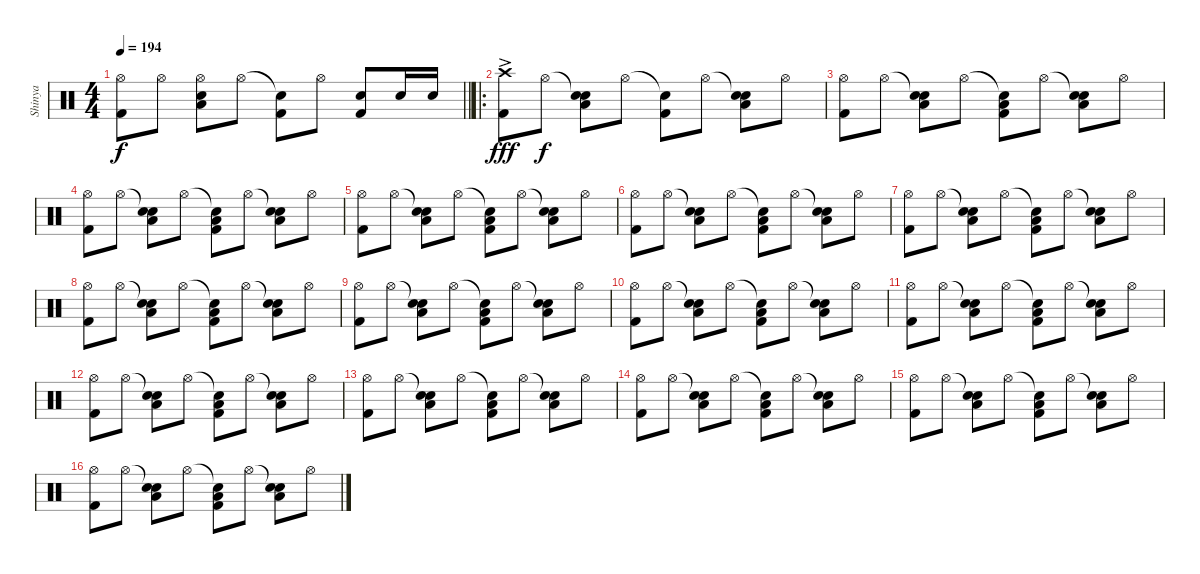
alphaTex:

\track ("Shinya" "Shinya") {instrument percussion}
\staff {score}
\articulation defaults
\ts (4 4)
\tempo 194
\clef neutral
\barLineRight lightlight
\ks c
("Hi-Hat (open)" "Kick (hit) 2").8{dy f} "Hi-Hat (open)".8 ("Hi-Hat (open)" "Snare (hit) 2" "Low Floor Tom (hit)").8 "Hi-Hat (open)".8 ("Snare (hit)"{t} "Kick (hit) 2").8 "Hi-Hat (open)".8 ("Snare (hit) 2" "Kick (hit) 2").8 "Snare (hit) 2".16 "Snare (hit) 2".16 |
\ro
("Crash high (hit)"{ac} "Kick (hit) 2").8{dy fff} "Hi-Hat (open)".8{dy f} ("Snare (hit)"{t} "Snare (hit) 2" "Low Floor Tom (hit)").8 "Hi-Hat (open)".8 ("Snare (hit)"{t} "Kick (hit) 2").8 "Hi-Hat (open)".8 ("Snare (hit)"{t} "Snare (hit) 2" "Low Floor Tom (hit)").8 "Hi-Hat (open)".8 |
("Hi-Hat (open)" "Kick (hit) 2").8 "Hi-Hat (open)".8 ("Snare (hit)"{t} "Snare (hit) 2" "Low Floor Tom (hit)").8 "Hi-Hat (open)".8 ("Snare (hit)"{t} "Kick (hit) 2" "Low Floor Tom (hit)").8 "Hi-Hat (open)".8 ("Snare (hit)"{t} "Snare (hit) 2" "Low Floor Tom (hit)").8 "Hi-Hat (open)".8 |
("Hi-Hat (open)" "Kick (hit) 2").8 "Hi-Hat (open)".8 ("Snare (hit)"{t} "Snare (hit) 2" "Low Floor Tom (hit)").8 "Hi-Hat (open)".8 ("Snare (hit)"{t} "Kick (hit) 2" "Low Floor Tom (hit)").8 "Hi-Hat (open)".8 ("Snare (hit)"{t} "Snare (hit) 2" "Low Floor Tom (hit)").8 "Hi-Hat (open)".8 |
("Hi-Hat (open)" "Kick (hit) 2").8 "Hi-Hat (open)".8 ("Snare (hit)"{t} "Snare (hit) 2" "Low Floor Tom (hit)").8 "Hi-Hat (open)".8 ("Snare (hit)"{t} "Kick (hit) 2" "Low Floor Tom (hit)").8 "Hi-Hat (open)".8 ("Snare (hit)"{t} "Snare (hit) 2" "Low Floor Tom (hit)").8 "Hi-Hat (open)".8 |
("Hi-Hat (open)" "Kick (hit) 2").8 "Hi-Hat (open)".8 ("Snare (hit)"{t} "Snare (hit) 2" "Low Floor Tom (hit)").8 "Hi-Hat (open)".8 ("Snare (hit)"{t} "Kick (hit) 2" "Low Floor Tom (hit)").8 "Hi-Hat (open)".8 ("Snare (hit)"{t} "Snare (hit) 2" "Low Floor Tom (hit)").8 "Hi-Hat (open)".8 |
("Hi-Hat (open)" "Kick (hit) 2").8 "Hi-Hat (open)".8 ("Snare (hit)"{t} "Snare (hit) 2" "Low Floor Tom (hit)").8 "Hi-Hat (open)".8 ("Snare (hit)"{t} "Kick (hit) 2" "Low Floor Tom (hit)").8 "Hi-Hat (open)".8 ("Snare (hit)"{t} "Snare (hit) 2" "Low Floor Tom (hit)").8 "Hi-Hat (open)".8 |
("Hi-Hat (open)" "Kick (hit) 2").8 "Hi-Hat (open)".8 ("Snare (hit)"{t} "Snare (hit) 2" "Low Floor Tom (hit)").8 "Hi-Hat (open)".8 ("Snare (hit)"{t} "Kick (hit) 2" "Low Floor Tom (hit)").8 "Hi-Hat (open)".8 ("Snare (hit)"{t} "Snare (hit) 2" "Low Floor Tom (hit)").8 "Hi-Hat (open)".8 |
("Hi-Hat (open)" "Kick (hit) 2").8 "Hi-Hat (open)".8 ("Snare (hit)"{t} "Snare (hit) 2" "Low Floor Tom (hit)").8 "Hi-Hat (open)".8 ("Snare (hit)"{t} "Kick (hit) 2" "Low Floor Tom (hit)").8 "Hi-Hat (open)".8 ("Snare (hit)"{t} "Snare (hit) 2" "Low Floor Tom (hit)").8 "Hi-Hat (open)".8 |
("Hi-Hat (open)" "Kick (hit) 2").8 "Hi-Hat (open)".8 ("Snare (hit)"{t} "Snare (hit) 2" "Low Floor Tom (hit)").8 "Hi-Hat (open)".8 ("Snare (hit)"{t} "Kick (hit) 2" "Low Floor Tom (hit)").8 "Hi-Hat (open)".8 ("Snare (hit)"{t} "Snare (hit) 2" "Low Floor Tom (hit)").8 "Hi-Hat (open)".8 |
("Hi-Hat (open)" "Kick (hit) 2").8 "Hi-Hat (open)".8 ("Snare (hit)"{t} "Snare (hit) 2" "Low Floor Tom (hit)").8 "Hi-Hat (open)".8 ("Snare (hit)"{t} "Kick (hit) 2" "Low Floor Tom (hit)").8 "Hi-Hat (open)".8 ("Snare (hit)"{t} "Snare (hit) 2" "Low Floor Tom (hit)").8 "Hi-Hat (open)".8 |
("Hi-Hat (open)" "Kick (hit) 2").8 "Hi-Hat (open)".8 ("Snare (hit)"{t} "Snare (hit) 2" "Low Floor Tom (hit)").8 "Hi-Hat (open)".8 ("Snare (hit)"{t} "Kick (hit) 2" "Low Floor Tom (hit)").8 "Hi-Hat (open)".8 ("Snare (hit)"{t} "Snare (hit) 2" "Low Floor Tom (hit)").8 "Hi-Hat (open)".8 |
("Hi-Hat (open)" "Kick (hit) 2").8 "Hi-Hat (open)".8 ("Snare (hit)"{t} "Snare (hit) 2" "Low Floor Tom (hit)").8 "Hi-Hat (open)".8 ("Snare (hit)"{t} "Kick (hit) 2" "Low Floor Tom (hit)").8 "Hi-Hat (open)".8 ("Snare (hit)"{t} "Snare (hit) 2" "Low Floor Tom (hit)").8 "Hi-Hat (open)".8 |
("Hi-Hat (open)" "Kick (hit) 2").8 "Hi-Hat (open)".8 ("Snare (hit)"{t} "Snare (hit) 2" "Low Floor Tom (hit)").8 "Hi-Hat (open)".8 ("Snare (hit)"{t} "Kick (hit) 2" "Low Floor Tom (hit)").8 "Hi-Hat (open)".8 ("Snare (hit)"{t} "Snare (hit) 2" "Low Floor Tom (hit)").8 "Hi-Hat (open)".8 |
("Hi-Hat (open)" "Kick (hit) 2").8 "Hi-Hat (open)".8 ("Snare (hit)"{t} "Snare (hit) 2" "Low Floor Tom (hit)").8 "Hi-Hat (open)".8 ("Snare (hit)"{t} "Kick (hit) 2" "Low Floor Tom (hit)").8 "Hi-Hat (open)".8 ("Snare (hit)"{t} "Snare (hit) 2" "Low Floor Tom (hit)").8 "Hi-Hat (open)".8 |
("Hi-Hat (open)" "Kick (hit) 2").8 "Hi-Hat (open)".8 ("Snare (hit)"{t} "Snare (hit) 2" "Low Floor Tom (hit)").8 "Hi-Hat (open)".8 ("Snare (hit)"{t} "Kick (hit) 2" "Low Floor Tom (hit)").8 "Hi-Hat (open)".8 ("Snare (hit)"{t} "Snare (hit) 2" "Low Floor Tom (hit)").8 "Hi-Hat (open)".8
